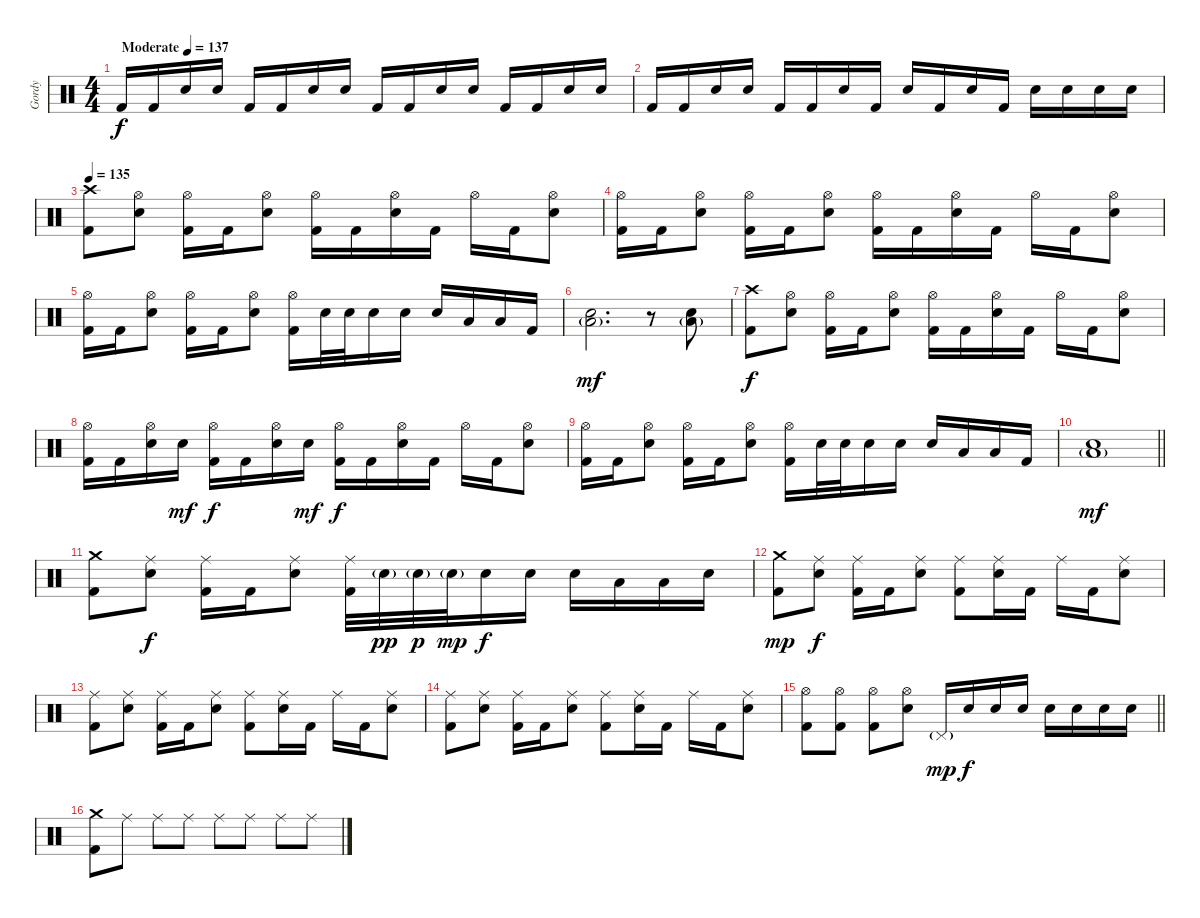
\track ("Gordy" "Gordy") {instrument percussion}
\staff {score}
\articulation defaults
\ts (4 4)
\tempo (137 "Moderate")
\clef neutral
\ks c "Kick (hit) 2".16{dy f} "Kick (hit) 2".16 "Electric Snare (hit)".16 "Electric Snare (hit)".16 "Kick (hit) 2".16 "Kick (hit) 2".16 "Electric Snare (hit)".16 "Electric Snare (hit)".16 "Kick (hit) 2".16 "Kick (hit) 2".16 "Electric Snare (hit)".16 "Electric Snare (hit)".16 "Kick (hit) 2".16 "Kick (hit) 2".16 "Electric Snare (hit)".16 "Electric Snare (hit)".16
|
"Kick (hit) 2".16 "Kick (hit) 2".16 "Electric Snare (hit)".16 "Electric Snare (hit)".16 "Kick (hit) 2".16 "Kick (hit) 2".16 "Electric Snare (hit)".16 "Kick (hit) 2".16 "Electric Snare (hit)".16 "Kick (hit) 2".16 "Electric Snare (hit)".16 "Kick (hit) 2".16 "Electric Snare (hit)".16 "Electric Snare (hit)".16 "Electric Snare (hit)".16 "Electric Snare (hit)".16 |
\tempo 135
("Crash high (hit)" "Kick (hit) 2").8 ("Hi-Hat (open)" "Electric Snare (hit)").8 ("Hi-Hat (open)" "Kick (hit) 2").16 "Kick (hit) 2".16 ("Hi-Hat (open)" "Electric Snare (hit)").8 ("Hi-Hat (open)" "Kick (hit) 2").16 "Kick (hit) 2".16 ("Hi-Hat (open)" "Electric Snare (hit)").16 "Kick (hit) 2".16 "Hi-Hat (open)".16 "Kick (hit) 2".16 ("Hi-Hat (open)" "Electric Snare (hit)").8 |
("Hi-Hat (open)" "Kick (hit) 2").16 "Kick (hit) 2".16 ("Hi-Hat (open)" "Electric Snare (hit)").8 ("Hi-Hat (open)" "Kick (hit) 2").16 "Kick (hit) 2".16 ("Hi-Hat (open)" "Electric Snare (hit)").8 ("Hi-Hat (open)" "Kick (hit) 2").16 "Kick (hit) 2".16 ("Hi-Hat (open)" "Electric Snare (hit)").16 "Kick (hit) 2".16 "Hi-Hat (open)".16 "Kick (hit) 2".16 ("Hi-Hat (open)" "Electric Snare (hit)").8 |
("Hi-Hat (open)" "Kick (hit) 2").16 "Kick (hit) 2".16 ("Hi-Hat (open)" "Electric Snare (hit)").8 ("Hi-Hat (open)" "Kick (hit) 2").16 "Kick (hit) 2".16 ("Hi-Hat (open)" "Electric Snare (hit)").8 ("Hi-Hat (open)" "Kick (hit) 2").16 "Electric Snare (hit)".32 "Electric Snare (hit)".32 "Electric Snare (hit)".16 "Electric Snare (hit)".16 "Electric Snare (hit)".16 "Low Tom (hit)".16 "Low Floor Tom (hit)".16 "Kick (hit) 2".16 |
("Electric Snare (hit)" "Low Floor Tom (hit)"{g}).2{d dy mf} r.8 ("Electric Snare (hit)" "Low Floor Tom (hit)"{g}).8 |
("Crash high (hit)" "Kick (hit) 2").8{dy f} ("Hi-Hat (open)" "Electric Snare (hit)").8 ("Hi-Hat (open)" "Kick (hit) 2").16 "Kick (hit) 2".16 ("Hi-Hat (open)" "Electric Snare (hit)").8 ("Hi-Hat (open)" "Kick (hit) 2").16 "Kick (hit) 2".16 ("Hi-Hat (open)" "Electric Snare (hit)").16 "Kick (hit) 2".16 "Hi-Hat (open)".16 "Kick (hit) 2".16 ("Hi-Hat (open)" "Electric Snare (hit)").8 |
("Hi-Hat (open)" "Kick (hit) 2").16 "Kick (hit) 2".16 ("Hi-Hat (open)" "Electric Snare (hit)").16 "Electric Snare (hit)".16{dy mf} ("Hi-Hat (open)" "Kick (hit) 2").16{dy f} "Kick (hit) 2".16 ("Hi-Hat (open)" "Electric Snare (hit)").16 "Electric Snare (hit)".16{dy mf} ("Hi-Hat (open)" "Kick (hit) 2").16{dy f} "Kick (hit) 2".16 ("Hi-Hat (open)" "Electric Snare (hit)").16 "Kick (hit) 2".16 "Hi-Hat (open)".16 "Kick (hit) 2".16 ("Hi-Hat (open)" "Electric Snare (hit)").8 |
("Hi-Hat (open)" "Kick (hit) 2").16 "Kick (hit) 2".16 ("Hi-Hat (open)" "Electric Snare (hit)").8 ("Hi-Hat (open)" "Kick (hit) 2").16 "Kick (hit) 2".16 ("Hi-Hat (open)" "Electric Snare (hit)").8 ("Hi-Hat (open)" "Kick (hit) 2").16 "Electric Snare (hit)".32 "Electric Snare (hit)".32 "Electric Snare (hit)".16 "Electric Snare (hit)".16 "Electric Snare (hit)".16 "Low Tom (hit)".16 "Low Floor Tom (hit)".16 "Kick (hit) 2".16 |
\barLineRight lightlight
("Electric Snare (hit)" "Low Floor Tom (hit)"{g}).1{dy mf} |
\section ("" "")
("Crash medium (hit)" "Kick (hit) 2").8 ("Ride (middle)" "Electric Snare (hit)").8{dy f} ("Ride (middle)" "Kick (hit) 2").16 "Kick (hit) 2".16 ("Ride (middle)" "Electric Snare (hit)").8 ("Ride (middle)" "Kick (hit) 2").32 "Electric Snare (hit)"{g}.32{dy pp} "Electric Snare (hit)"{g}.32{dy p} "Electric Snare (hit)"{g}.32{dy mp} "Electric Snare (hit)".16{dy f} "Electric Snare (hit)".16 "Electric Snare (hit)".16 "Low Tom (hit)".16 "Low Floor Tom (hit)".16 "Electric Snare (hit)".16 |
("Crash medium (hit)" "Kick (hit) 2").8{dy mp} ("Ride (middle)" "Electric Snare (hit)").8{dy f} ("Ride (middle)" "Kick (hit) 2").16 "Kick (hit) 2".16 ("Ride (middle)" "Electric Snare (hit)").8 ("Ride (middle)" "Kick (hit) 2").8 ("Ride (middle)" "Electric Snare (hit)").16 "Kick (hit) 2".16 "Ride (middle)".16 "Kick (hit) 2".16 ("Ride (middle)" "Electric Snare (hit)").8 |
("Ride (middle)" "Kick (hit) 2").8 ("Ride (middle)" "Electric Snare (hit)").8 ("Ride (middle)" "Kick (hit) 2").16 "Kick (hit) 2".16 ("Ride (middle)" "Electric Snare (hit)").8 ("Ride (middle)" "Kick (hit) 2").8 ("Ride (middle)" "Electric Snare (hit)").16 "Kick (hit) 2".16 "Ride (middle)".16 "Kick (hit) 2".16 ("Ride (middle)" "Electric Snare (hit)").8 |
("Ride (middle)" "Kick (hit) 2").8 ("Ride (middle)" "Electric Snare (hit)").8 ("Ride (middle)" "Kick (hit) 2").16 "Kick (hit) 2".16 ("Ride (middle)" "Electric Snare (hit)").8 ("Ride (middle)" "Kick (hit) 2").8 ("Ride (middle)" "Electric Snare (hit)").16 "Kick (hit) 2".16 "Ride (middle)".16 "Kick (hit) 2".16 ("Ride (middle)" "Electric Snare (hit)").8 |
\barLineRight lightlight
("Hi-Hat (open)" "Kick (hit) 2").8 ("Hi-Hat (open)" "Kick (hit) 2").8 ("Hi-Hat (open)" "Kick (hit) 2").8 ("Hi-Hat (open)" "Electric Snare (hit)").8 "Pedal Hi-Hat (hit)"{g}.16{dy mp} "Electric Snare (hit)".16{dy f} "Electric Snare (hit)".16 "Electric Snare (hit)".16 "Electric Snare (hit)".16 "Electric Snare (hit)".16 "Electric Snare (hit)".16 "Electric Snare (hit)".16 |
\section ("" "")
("Crash medium (hit)" "Kick (hit) 2").8 "Ride (middle)".8 "Ride (middle)".8 "Ride (middle)".8 "Ride (middle)".8 "Ride (middle)".8 "Ride (middle)".8 "Ride (middle)".8
